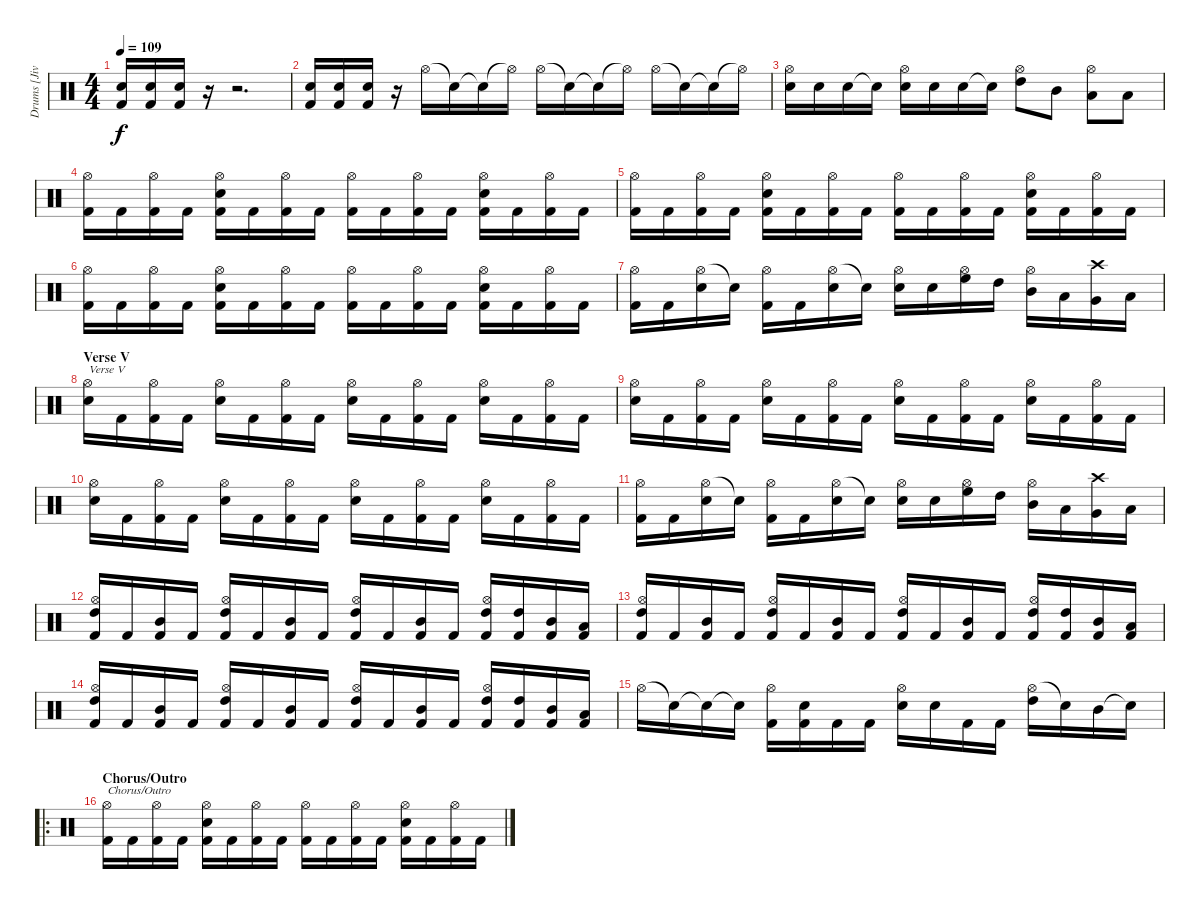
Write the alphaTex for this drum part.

\track ("Drums [Jivarp]" "Drums [Jiv") {instrument percussion}
\staff {score}
\articulation defaults
\ts (4 4)
\tempo 109
\clef neutral
\ks c
("Electric Snare (hit)" "Kick (hit) 2").16{dy f} ("Electric Snare (hit)" "Kick (hit) 2").16 ("Electric Snare (hit)" "Kick (hit) 2").16 r.16 r.2{d} |
("Electric Snare (hit)" "Kick (hit) 2").16 ("Electric Snare (hit)" "Kick (hit) 2").16 ("Electric Snare (hit)" "Kick (hit) 2").16 r.16 "Hi-Hat (open)".16 "Snare (hit)"{t}.16 "Snare (hit)"{t}.16 "Hi-Hat (open)"{t}.16 "Hi-Hat (open)".16 "Snare (hit)"{t}.16 "Snare (hit)"{t}.16 "Hi-Hat (open)"{t}.16 "Hi-Hat (open)".16 "Snare (hit)"{t}.16 "Snare (hit)"{t}.16 "Hi-Hat (open)"{t}.16 |
("Hi-Hat (open)" "Electric Snare (hit)").16 "Electric Snare (hit)".16 "Electric Snare (hit)".16 "Electric Snare (hit)"{t}.16 ("Hi-Hat (open)" "Electric Snare (hit)").16 "Electric Snare (hit)".16 "Electric Snare (hit)".16 "Electric Snare (hit)"{t}.16 ("Hi-Hat (open)" "High Tom (hit)").8 "Mid Tom (hit)".8 ("Hi-Hat (open)" "Low Tom (hit)").8 "Low Tom (hit)".8 |
("Hi-Hat (open)" "Kick (hit) 2").16 "Kick (hit) 2".16 ("Hi-Hat (open)" "Kick (hit) 2").16 "Kick (hit) 2".16 ("Hi-Hat (open)" "Electric Snare (hit)" "Kick (hit) 2").16 "Kick (hit) 2".16 ("Hi-Hat (open)" "Kick (hit) 2").16 "Kick (hit) 2".16 ("Hi-Hat (open)" "Kick (hit) 2").16 "Kick (hit) 2".16 ("Hi-Hat (open)" "Kick (hit) 2").16 "Kick (hit) 2".16 ("Hi-Hat (open)" "Electric Snare (hit)" "Kick (hit) 2").16 "Kick (hit) 2".16 ("Hi-Hat (open)" "Kick (hit) 2").16 "Kick (hit) 2".16 |
("Hi-Hat (open)" "Kick (hit) 2").16 "Kick (hit) 2".16 ("Hi-Hat (open)" "Kick (hit) 2").16 "Kick (hit) 2".16 ("Hi-Hat (open)" "Electric Snare (hit)" "Kick (hit) 2").16 "Kick (hit) 2".16 ("Hi-Hat (open)" "Kick (hit) 2").16 "Kick (hit) 2".16 ("Hi-Hat (open)" "Kick (hit) 2").16 "Kick (hit) 2".16 ("Hi-Hat (open)" "Kick (hit) 2").16 "Kick (hit) 2".16 ("Hi-Hat (open)" "Electric Snare (hit)" "Kick (hit) 2").16 "Kick (hit) 2".16 ("Hi-Hat (open)" "Kick (hit) 2").16 "Kick (hit) 2".16 |
("Hi-Hat (open)" "Kick (hit) 2").16 "Kick (hit) 2".16 ("Hi-Hat (open)" "Kick (hit) 2").16 "Kick (hit) 2".16 ("Hi-Hat (open)" "Electric Snare (hit)" "Kick (hit) 2").16 "Kick (hit) 2".16 ("Hi-Hat (open)" "Kick (hit) 2").16 "Kick (hit) 2".16 ("Hi-Hat (open)" "Kick (hit) 2").16 "Kick (hit) 2".16 ("Hi-Hat (open)" "Kick (hit) 2").16 "Kick (hit) 2".16 ("Hi-Hat (open)" "Electric Snare (hit)" "Kick (hit) 2").16 "Kick (hit) 2".16 ("Hi-Hat (open)" "Kick (hit) 2").16 "Kick (hit) 2".16 |
("Hi-Hat (open)" "Kick (hit) 2").16 "Kick (hit) 2".16 ("Hi-Hat (open)" "Electric Snare (hit)").16 "Electric Snare (hit)"{t}.16 ("Hi-Hat (open)" "Kick (hit) 2").16 "Kick (hit) 2".16 ("Hi-Hat (open)" "Electric Snare (hit)").16 "Electric Snare (hit)"{t}.16 ("Hi-Hat (open)" "Electric Snare (hit)").16 "Electric Snare (hit)".16 ("Hi-Hat (open)" "High Floor Tom (hit)").16 "High Tom (hit)".16 ("Hi-Hat (open)" "Mid Tom (hit)").16 "Low Tom (hit)".16 ("Crash high (hit)" "Very Low Tom (hit)").16 "Low Tom (hit)".16 |
\section ("" "Verse V")
("Hi-Hat (open)" "Electric Snare (hit)").16{txt "Verse V"} "Kick (hit) 2".16 ("Hi-Hat (open)" "Kick (hit) 2").16 "Kick (hit) 2".16 ("Hi-Hat (open)" "Electric Snare (hit)").16 "Kick (hit) 2".16 ("Hi-Hat (open)" "Kick (hit) 2").16 "Kick (hit) 2".16 ("Hi-Hat (open)" "Electric Snare (hit)").16 "Kick (hit) 2".16 ("Hi-Hat (open)" "Kick (hit) 2").16 "Kick (hit) 2".16 ("Hi-Hat (open)" "Electric Snare (hit)").16 "Kick (hit) 2".16 ("Hi-Hat (open)" "Kick (hit) 2").16 "Kick (hit) 2".16 |
("Hi-Hat (open)" "Electric Snare (hit)").16 "Kick (hit) 2".16 ("Hi-Hat (open)" "Kick (hit) 2").16 "Kick (hit) 2".16 ("Hi-Hat (open)" "Electric Snare (hit)").16 "Kick (hit) 2".16 ("Hi-Hat (open)" "Kick (hit) 2").16 "Kick (hit) 2".16 ("Hi-Hat (open)" "Electric Snare (hit)").16 "Kick (hit) 2".16 ("Hi-Hat (open)" "Kick (hit) 2").16 "Kick (hit) 2".16 ("Hi-Hat (open)" "Electric Snare (hit)").16 "Kick (hit) 2".16 ("Hi-Hat (open)" "Kick (hit) 2").16 "Kick (hit) 2".16 |
("Hi-Hat (open)" "Electric Snare (hit)").16 "Kick (hit) 2".16 ("Hi-Hat (open)" "Kick (hit) 2").16 "Kick (hit) 2".16 ("Hi-Hat (open)" "Electric Snare (hit)").16 "Kick (hit) 2".16 ("Hi-Hat (open)" "Kick (hit) 2").16 "Kick (hit) 2".16 ("Hi-Hat (open)" "Electric Snare (hit)").16 "Kick (hit) 2".16 ("Hi-Hat (open)" "Kick (hit) 2").16 "Kick (hit) 2".16 ("Hi-Hat (open)" "Electric Snare (hit)").16 "Kick (hit) 2".16 ("Hi-Hat (open)" "Kick (hit) 2").16 "Kick (hit) 2".16 |
("Hi-Hat (open)" "Kick (hit) 2").16 "Kick (hit) 2".16 ("Hi-Hat (open)" "Electric Snare (hit)").16 "Electric Snare (hit)"{t}.16 ("Hi-Hat (open)" "Kick (hit) 2").16 "Kick (hit) 2".16 ("Hi-Hat (open)" "Electric Snare (hit)").16 "Electric Snare (hit)"{t}.16 ("Hi-Hat (open)" "Electric Snare (hit)").16 "Electric Snare (hit)".16 ("Hi-Hat (open)" "High Floor Tom (hit)").16 "High Tom (hit)".16 ("Hi-Hat (open)" "Mid Tom (hit)").16 "Low Tom (hit)".16 ("Crash high (hit)" "Very Low Tom (hit)").16 "Low Tom (hit)".16 |
("Hi-Hat (open)" "High Tom (hit)" "Kick (hit) 2").16 "Kick (hit) 2".16 ("Mid Tom (hit)" "Kick (hit) 2").16 "Kick (hit) 2".16 ("Hi-Hat (open)" "High Tom (hit)" "Kick (hit) 2").16 "Kick (hit) 2".16 ("Mid Tom (hit)" "Kick (hit) 2").16 "Kick (hit) 2".16 ("Hi-Hat (open)" "High Tom (hit)" "Kick (hit) 2").16 "Kick (hit) 2".16 ("Mid Tom (hit)" "Kick (hit) 2").16 "Kick (hit) 2".16 ("Hi-Hat (open)" "High Tom (hit)" "Kick (hit) 2").16 ("High Tom (hit)" "Kick (hit) 2").16 ("Mid Tom (hit)" "Kick (hit) 2").16 ("Low Tom (hit)" "Kick (hit) 2").16 |
("Hi-Hat (open)" "High Tom (hit)" "Kick (hit) 2").16 "Kick (hit) 2".16 ("Mid Tom (hit)" "Kick (hit) 2").16 "Kick (hit) 2".16 ("Hi-Hat (open)" "High Tom (hit)" "Kick (hit) 2").16 "Kick (hit) 2".16 ("Mid Tom (hit)" "Kick (hit) 2").16 "Kick (hit) 2".16 ("Hi-Hat (open)" "High Tom (hit)" "Kick (hit) 2").16 "Kick (hit) 2".16 ("Mid Tom (hit)" "Kick (hit) 2").16 "Kick (hit) 2".16 ("Hi-Hat (open)" "High Tom (hit)" "Kick (hit) 2").16 ("High Tom (hit)" "Kick (hit) 2").16 ("Mid Tom (hit)" "Kick (hit) 2").16 ("Low Tom (hit)" "Kick (hit) 2").16 |
("Hi-Hat (open)" "High Tom (hit)" "Kick (hit) 2").16 "Kick (hit) 2".16 ("Mid Tom (hit)" "Kick (hit) 2").16 "Kick (hit) 2".16 ("Hi-Hat (open)" "High Tom (hit)" "Kick (hit) 2").16 "Kick (hit) 2".16 ("Mid Tom (hit)" "Kick (hit) 2").16 "Kick (hit) 2".16 ("Hi-Hat (open)" "High Tom (hit)" "Kick (hit) 2").16 "Kick (hit) 2".16 ("Mid Tom (hit)" "Kick (hit) 2").16 "Kick (hit) 2".16 ("Hi-Hat (open)" "High Tom (hit)" "Kick (hit) 2").16 ("High Tom (hit)" "Kick (hit) 2").16 ("Mid Tom (hit)" "Kick (hit) 2").16 ("Low Tom (hit)" "Kick (hit) 2").16 |
"Hi-Hat (open)".16 "Snare (hit)"{t}.16 "Snare (hit)"{t}.16 "Snare (hit)"{t}.16 ("Hi-Hat (open)" "Kick (hit) 2").16 ("Electric Snare (hit)" "Kick (hit) 2").16 "Kick (hit) 2".16 "Kick (hit) 2".16 ("Hi-Hat (open)" "Electric Snare (hit)").16 "Electric Snare (hit)".16 "Kick (hit) 2".16 "Kick (hit) 2".16 ("Hi-Hat (open)" "High Tom (hit)").16 "Snare (hit)"{t}.16 "Mid Tom (hit)".16 "Snare (hit)"{t}.16 |
\ro
\section ("" "Chorus/Outro")
("Hi-Hat (open)" "Kick (hit) 2").16{txt "Chorus/Outro"} "Kick (hit) 2".16 ("Hi-Hat (open)" "Kick (hit) 2").16 "Kick (hit) 2".16 ("Hi-Hat (open)" "Electric Snare (hit)" "Kick (hit) 2").16 "Kick (hit) 2".16 ("Hi-Hat (open)" "Kick (hit) 2").16 "Kick (hit) 2".16 ("Hi-Hat (open)" "Kick (hit) 2").16 "Kick (hit) 2".16 ("Hi-Hat (open)" "Kick (hit) 2").16 "Kick (hit) 2".16 ("Hi-Hat (open)" "Electric Snare (hit)" "Kick (hit) 2").16 "Kick (hit) 2".16 ("Hi-Hat (open)" "Kick (hit) 2").16 "Kick (hit) 2".16
